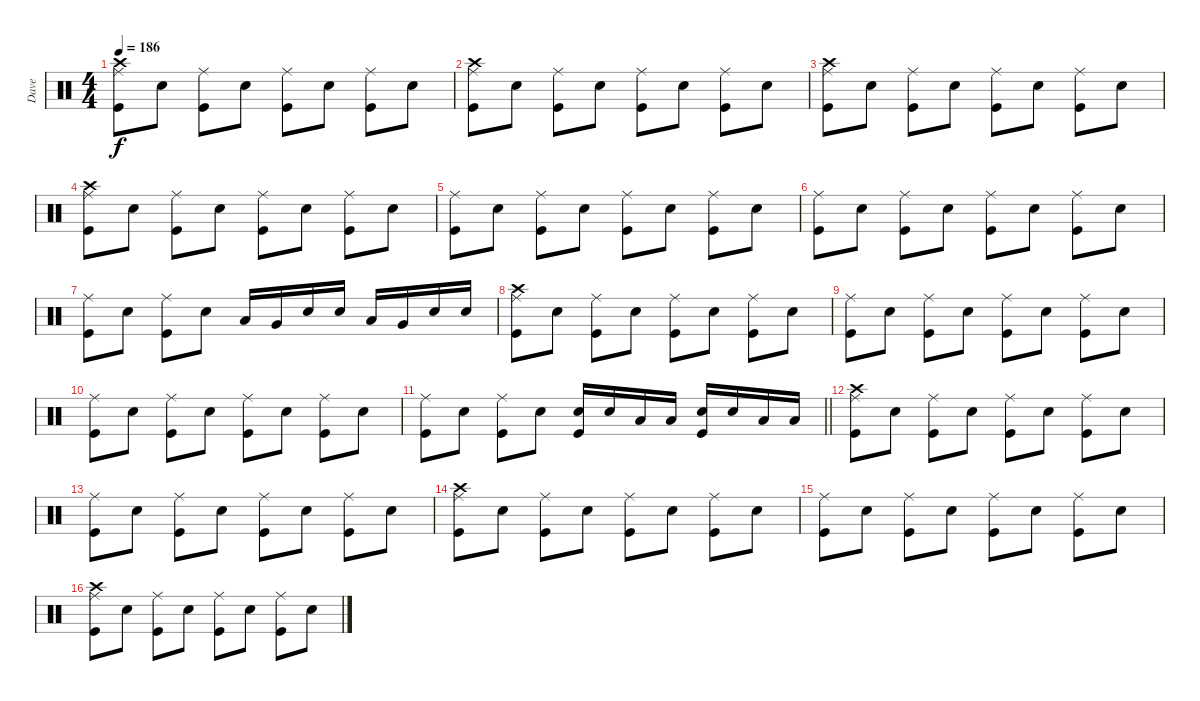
\track ("Dave" "Dave") {instrument percussion}
\staff {score}
\articulation defaults
\ts (4 4)
\tempo 186
\clef neutral
\ks c
("Crash high (hit)" "Ride (middle)" "Kick (hit)").8{dy f} "Snare (hit) 2".8 ("Ride (middle)" "Kick (hit)").8 "Snare (hit) 2".8 ("Ride (middle)" "Kick (hit)").8 "Snare (hit) 2".8 ("Ride (middle)" "Kick (hit)").8 "Snare (hit) 2".8 |
("Crash high (hit)" "Ride (middle)" "Kick (hit)").8 "Snare (hit) 2".8 ("Ride (middle)" "Kick (hit)").8 "Snare (hit) 2".8 ("Ride (middle)" "Kick (hit)").8 "Snare (hit) 2".8 ("Ride (middle)" "Kick (hit)").8 "Snare (hit) 2".8 |
("Crash high (hit)" "Ride (middle)" "Kick (hit)").8 "Snare (hit) 2".8 ("Ride (middle)" "Kick (hit)").8 "Snare (hit) 2".8 ("Ride (middle)" "Kick (hit)").8 "Snare (hit) 2".8 ("Ride (middle)" "Kick (hit)").8 "Snare (hit) 2".8 |
("Crash high (hit)" "Ride (middle)" "Kick (hit)").8 "Snare (hit) 2".8 ("Ride (middle)" "Kick (hit)").8 "Snare (hit) 2".8 ("Ride (middle)" "Kick (hit)").8 "Snare (hit) 2".8 ("Ride (middle)" "Kick (hit)").8 "Snare (hit) 2".8 |
("Ride (middle)" "Kick (hit)").8 "Snare (hit) 2".8 ("Ride (middle)" "Kick (hit)").8 "Snare (hit) 2".8 ("Ride (middle)" "Kick (hit)").8 "Snare (hit) 2".8 ("Ride (middle)" "Kick (hit)").8 "Snare (hit) 2".8 |
("Ride (middle)" "Kick (hit)").8 "Snare (hit) 2".8 ("Ride (middle)" "Kick (hit)").8 "Snare (hit) 2".8 ("Ride (middle)" "Kick (hit)").8 "Snare (hit) 2".8 ("Ride (middle)" "Kick (hit)").8 "Snare (hit) 2".8 |
("Ride (middle)" "Kick (hit)").8 "Snare (hit) 2".8 ("Ride (middle)" "Kick (hit)").8 "Snare (hit) 2".8 "Low Tom (hit)".16 "Very Low Tom (hit)".16 "Snare (hit) 2".16 "Snare (hit) 2".16 "Low Tom (hit)".16 "Very Low Tom (hit)".16 "Snare (hit) 2".16 "Snare (hit) 2".16 |
("Crash high (hit)" "Ride (middle)" "Kick (hit)").8 "Snare (hit) 2".8 ("Ride (middle)" "Kick (hit)").8 "Snare (hit) 2".8 ("Ride (middle)" "Kick (hit)").8 "Snare (hit) 2".8 ("Ride (middle)" "Kick (hit)").8 "Snare (hit) 2".8 |
("Ride (middle)" "Kick (hit)").8 "Snare (hit) 2".8 ("Ride (middle)" "Kick (hit)").8 "Snare (hit) 2".8 ("Ride (middle)" "Kick (hit)").8 "Snare (hit) 2".8 ("Ride (middle)" "Kick (hit)").8 "Snare (hit) 2".8 |
("Ride (middle)" "Kick (hit)").8 "Snare (hit) 2".8 ("Ride (middle)" "Kick (hit)").8 "Snare (hit) 2".8 ("Ride (middle)" "Kick (hit)").8 "Snare (hit) 2".8 ("Ride (middle)" "Kick (hit)").8 "Snare (hit) 2".8 |
\barLineRight lightlight
("Ride (middle)" "Kick (hit)").8 "Snare (hit) 2".8 ("Ride (middle)" "Kick (hit)").8 "Snare (hit) 2".8 ("Kick (hit)" "Snare (hit) 2").16 "Snare (hit) 2".16 "Low Tom (hit)".16 "Low Tom (hit)".16 ("Kick (hit)" "Snare (hit) 2").16 "Snare (hit) 2".16 "Low Tom (hit)".16 "Low Tom (hit)".16 |
("Crash high (hit)" "Ride (middle)" "Kick (hit)").8 "Snare (hit) 2".8 ("Ride (middle)" "Kick (hit)").8 "Snare (hit) 2".8 ("Ride (middle)" "Kick (hit)").8 "Snare (hit) 2".8 ("Ride (middle)" "Kick (hit)").8 "Snare (hit) 2".8 |
("Ride (middle)" "Kick (hit)").8 "Snare (hit) 2".8 ("Ride (middle)" "Kick (hit)").8 "Snare (hit) 2".8 ("Ride (middle)" "Kick (hit)").8 "Snare (hit) 2".8 ("Ride (middle)" "Kick (hit)").8 "Snare (hit) 2".8 |
("Crash high (hit)" "Ride (middle)" "Kick (hit)").8 "Snare (hit) 2".8 ("Ride (middle)" "Kick (hit)").8 "Snare (hit) 2".8 ("Ride (middle)" "Kick (hit)").8 "Snare (hit) 2".8 ("Ride (middle)" "Kick (hit)").8 "Snare (hit) 2".8 |
("Ride (middle)" "Kick (hit)").8 "Snare (hit) 2".8 ("Ride (middle)" "Kick (hit)").8 "Snare (hit) 2".8 ("Ride (middle)" "Kick (hit)").8 "Snare (hit) 2".8 ("Ride (middle)" "Kick (hit)").8 "Snare (hit) 2".8 |
("Crash high (hit)" "Ride (middle)" "Kick (hit)").8 "Snare (hit) 2".8 ("Ride (middle)" "Kick (hit)").8 "Snare (hit) 2".8 ("Ride (middle)" "Kick (hit)").8 "Snare (hit) 2".8 ("Ride (middle)" "Kick (hit)").8 "Snare (hit) 2".8
